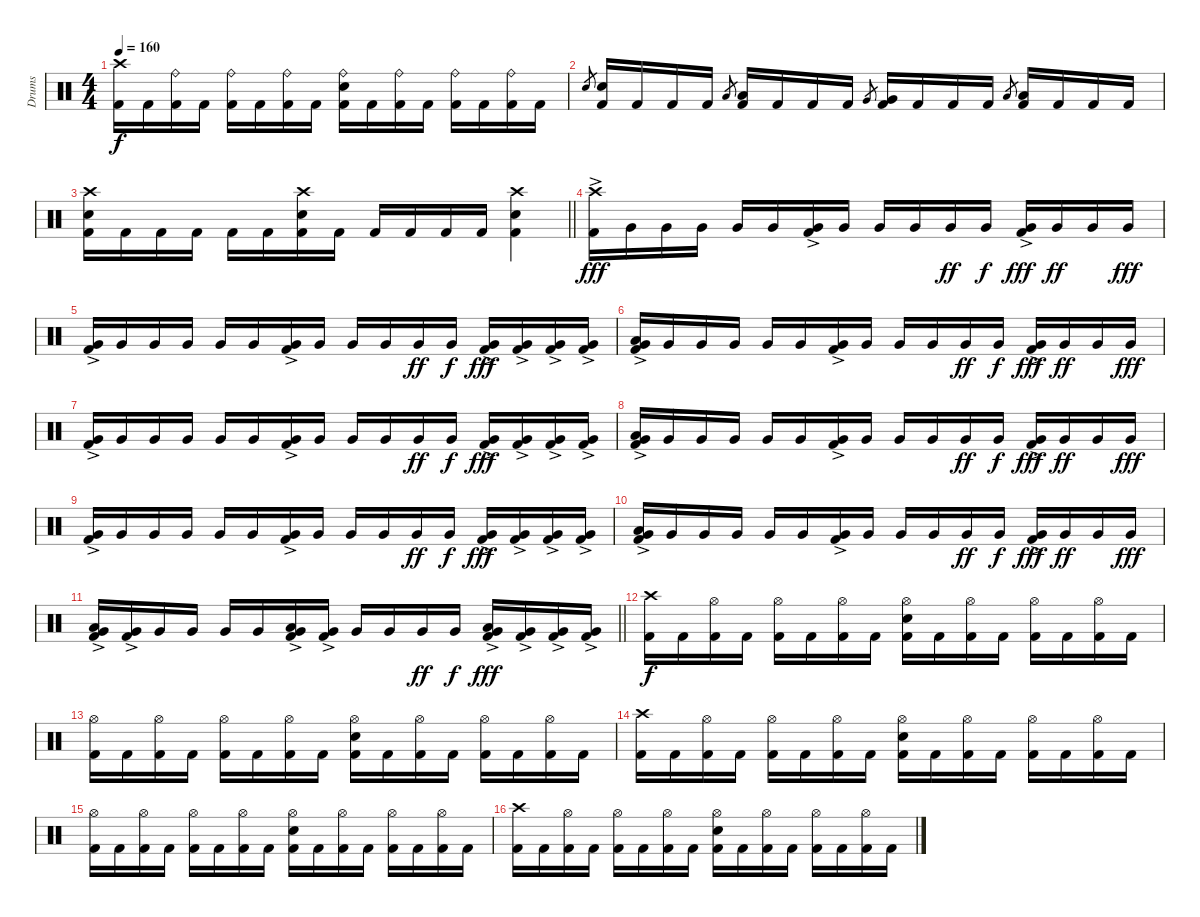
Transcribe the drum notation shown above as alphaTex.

\track ("Drums" "Drums") {instrument percussion}
\staff {score}
\articulation defaults
\ts (4 4)
\tempo 160
\clef neutral
\ks c
("Crash high (hit)" "Kick (hit) 2").16{dy f} "Kick (hit) 2".16 ("Ride (bell)" "Kick (hit) 2").16 "Kick (hit) 2".16 ("Ride (bell)" "Kick (hit) 2").16 "Kick (hit) 2".16 ("Ride (bell)" "Kick (hit) 2").16 "Kick (hit) 2".16 ("Ride (bell)" "Snare (hit) 2" "Kick (hit) 2").16 "Kick (hit) 2".16 ("Ride (bell)" "Kick (hit) 2").16 "Kick (hit) 2".16 ("Ride (bell)" "Kick (hit) 2").16 "Kick (hit) 2".16 ("Ride (bell)" "Kick (hit) 2").16 "Kick (hit) 2".16 |
"Snare (hit) 2".8{gr} ("Snare (hit) 2" "Kick (hit) 2").16 "Kick (hit) 2".16 "Kick (hit) 2".16 "Kick (hit) 2".16 "Low Tom (hit)".8{gr} ("Low Tom (hit)" "Kick (hit) 2").16 "Kick (hit) 2".16 "Kick (hit) 2".16 "Kick (hit) 2".16 "Very Low Tom (hit)".8{gr} ("Very Low Tom (hit)" "Kick (hit) 2").16 "Kick (hit) 2".16 "Kick (hit) 2".16 "Kick (hit) 2".16 "Low Floor Tom (hit)".8{gr} ("Low Floor Tom (hit)" "Kick (hit) 2").16 "Kick (hit) 2".16 "Kick (hit) 2".16 "Kick (hit) 2".16 |
\barLineRight lightlight
("Crash high (hit)" "Snare (hit) 2" "Kick (hit) 2").16 "Kick (hit) 2".16 "Kick (hit) 2".16 "Kick (hit) 2".16 "Kick (hit) 2".16 "Kick (hit) 2".16 ("Crash high (hit)" "Snare (hit) 2" "Kick (hit) 2").16 "Kick (hit) 2".16 "Kick (hit) 2".16 "Kick (hit) 2".16 "Kick (hit) 2".16 "Kick (hit) 2".16 ("Crash high (hit)" "Snare (hit) 2" "Kick (hit) 2").4 |
("Crash high (hit)" "Kick (hit) 2"{ac}).16{dy fff} "Very Low Tom (hit)".16 "Very Low Tom (hit)".16 "Very Low Tom (hit)".16 "Very Low Tom (hit)".16 "Very Low Tom (hit)".16 ("Very Low Tom (hit)"{ac} "Kick (hit) 2"{ac}).16 "Very Low Tom (hit)".16 "Very Low Tom (hit)".16 "Very Low Tom (hit)".16 "Very Low Tom (hit)".16{dy ff} "Very Low Tom (hit)".16{dy f} ("Very Low Tom (hit)"{ac} "Kick (hit) 2"{ac}).16{dy fff} "Very Low Tom (hit)".16{dy ff} "Very Low Tom (hit)".16 "Very Low Tom (hit)".16{dy fff} |
("Very Low Tom (hit)"{ac} "Kick (hit) 2"{ac}).16 "Very Low Tom (hit)".16 "Very Low Tom (hit)".16 "Very Low Tom (hit)".16 "Very Low Tom (hit)".16 "Very Low Tom (hit)".16 ("Very Low Tom (hit)"{ac} "Kick (hit) 2"{ac}).16 "Very Low Tom (hit)".16 "Very Low Tom (hit)".16 "Very Low Tom (hit)".16 "Very Low Tom (hit)".16{dy ff} "Very Low Tom (hit)".16{dy f} ("Very Low Tom (hit)"{ac} "Kick (hit) 2"{ac}).16{dy fff} ("Very Low Tom (hit)" "Kick (hit) 2"{ac}).16 ("Very Low Tom (hit)" "Kick (hit) 2"{ac}).16 ("Very Low Tom (hit)" "Kick (hit) 2"{ac}).16 |
("Very Low Tom (hit)"{ac} "Low Floor Tom (hit)"{ac} "Kick (hit) 2"{ac}).16 "Very Low Tom (hit)".16 "Very Low Tom (hit)".16 "Very Low Tom (hit)".16 "Very Low Tom (hit)".16 "Very Low Tom (hit)".16 ("Very Low Tom (hit)"{ac} "Kick (hit) 2"{ac}).16 "Very Low Tom (hit)".16 "Very Low Tom (hit)".16 "Very Low Tom (hit)".16 "Very Low Tom (hit)".16{dy ff} "Very Low Tom (hit)".16{dy f} ("Very Low Tom (hit)"{ac} "Kick (hit) 2"{ac}).16{dy fff} "Very Low Tom (hit)".16{dy ff} "Very Low Tom (hit)".16 "Very Low Tom (hit)".16{dy fff} |
("Very Low Tom (hit)"{ac} "Kick (hit) 2"{ac}).16 "Very Low Tom (hit)".16 "Very Low Tom (hit)".16 "Very Low Tom (hit)".16 "Very Low Tom (hit)".16 "Very Low Tom (hit)".16 ("Very Low Tom (hit)"{ac} "Kick (hit) 2"{ac}).16 "Very Low Tom (hit)".16 "Very Low Tom (hit)".16 "Very Low Tom (hit)".16 "Very Low Tom (hit)".16{dy ff} "Very Low Tom (hit)".16{dy f} ("Very Low Tom (hit)"{ac} "Kick (hit) 2"{ac}).16{dy fff} ("Very Low Tom (hit)" "Kick (hit) 2"{ac}).16 ("Very Low Tom (hit)" "Kick (hit) 2"{ac}).16 ("Very Low Tom (hit)" "Kick (hit) 2"{ac}).16 |
("Very Low Tom (hit)"{ac} "Low Floor Tom (hit)"{ac} "Kick (hit) 2"{ac}).16 "Very Low Tom (hit)".16 "Very Low Tom (hit)".16 "Very Low Tom (hit)".16 "Very Low Tom (hit)".16 "Very Low Tom (hit)".16 ("Very Low Tom (hit)"{ac} "Kick (hit) 2"{ac}).16 "Very Low Tom (hit)".16 "Very Low Tom (hit)".16 "Very Low Tom (hit)".16 "Very Low Tom (hit)".16{dy ff} "Very Low Tom (hit)".16{dy f} ("Very Low Tom (hit)"{ac} "Kick (hit) 2"{ac}).16{dy fff} "Very Low Tom (hit)".16{dy ff} "Very Low Tom (hit)".16 "Very Low Tom (hit)".16{dy fff} |
("Very Low Tom (hit)"{ac} "Kick (hit) 2"{ac}).16 "Very Low Tom (hit)".16 "Very Low Tom (hit)".16 "Very Low Tom (hit)".16 "Very Low Tom (hit)".16 "Very Low Tom (hit)".16 ("Very Low Tom (hit)"{ac} "Kick (hit) 2"{ac}).16 "Very Low Tom (hit)".16 "Very Low Tom (hit)".16 "Very Low Tom (hit)".16 "Very Low Tom (hit)".16{dy ff} "Very Low Tom (hit)".16{dy f} ("Very Low Tom (hit)"{ac} "Kick (hit) 2"{ac}).16{dy fff} ("Very Low Tom (hit)" "Kick (hit) 2"{ac}).16 ("Very Low Tom (hit)" "Kick (hit) 2"{ac}).16 ("Very Low Tom (hit)" "Kick (hit) 2"{ac}).16 |
("Very Low Tom (hit)"{ac} "Low Floor Tom (hit)"{ac} "Kick (hit) 2"{ac}).16 "Very Low Tom (hit)".16 "Very Low Tom (hit)".16 "Very Low Tom (hit)".16 "Very Low Tom (hit)".16 "Very Low Tom (hit)".16 ("Very Low Tom (hit)"{ac} "Kick (hit) 2"{ac}).16 "Very Low Tom (hit)".16 "Very Low Tom (hit)".16 "Very Low Tom (hit)".16 "Very Low Tom (hit)".16{dy ff} "Very Low Tom (hit)".16{dy f} ("Very Low Tom (hit)"{ac} "Kick (hit) 2"{ac}).16{dy fff} "Very Low Tom (hit)".16{dy ff} "Very Low Tom (hit)".16 "Very Low Tom (hit)".16{dy fff} |
\barLineRight lightlight
("Very Low Tom (hit)"{ac} "Low Floor Tom (hit)" "Kick (hit) 2"{ac}).16 ("Very Low Tom (hit)" "Kick (hit) 2"{ac}).16 "Very Low Tom (hit)".16 "Very Low Tom (hit)".16 "Very Low Tom (hit)".16 "Very Low Tom (hit)".16 ("Very Low Tom (hit)"{ac} "Low Floor Tom (hit)" "Kick (hit) 2"{ac}).16 ("Very Low Tom (hit)" "Kick (hit) 2"{ac}).16 "Very Low Tom (hit)".16 "Very Low Tom (hit)".16 "Very Low Tom (hit)".16{dy ff} "Very Low Tom (hit)".16{dy f} ("Very Low Tom (hit)"{ac} "Low Floor Tom (hit)" "Kick (hit) 2"{ac}).16{dy fff} ("Very Low Tom (hit)" "Kick (hit) 2"{ac}).16 ("Very Low Tom (hit)" "Kick (hit) 2"{ac}).16 ("Very Low Tom (hit)" "Kick (hit) 2"{ac}).16 |
("Crash high (hit)" "Kick (hit) 2").16{dy f} "Kick (hit) 2".16 ("Hi-Hat (open)" "Kick (hit) 2").16 "Kick (hit) 2".16 ("Hi-Hat (open)" "Kick (hit) 2").16 "Kick (hit) 2".16 ("Hi-Hat (open)" "Kick (hit) 2").16 "Kick (hit) 2".16 ("Hi-Hat (open)" "Snare (hit) 2" "Kick (hit) 2").16 "Kick (hit) 2".16 ("Hi-Hat (open)" "Kick (hit) 2").16 "Kick (hit) 2".16 ("Hi-Hat (open)" "Kick (hit) 2").16 "Kick (hit) 2".16 ("Hi-Hat (open)" "Kick (hit) 2").16 "Kick (hit) 2".16 |
("Hi-Hat (open)" "Kick (hit) 2").16 "Kick (hit) 2".16 ("Hi-Hat (open)" "Kick (hit) 2").16 "Kick (hit) 2".16 ("Hi-Hat (open)" "Kick (hit) 2").16 "Kick (hit) 2".16 ("Hi-Hat (open)" "Kick (hit) 2").16 "Kick (hit) 2".16 ("Hi-Hat (open)" "Snare (hit) 2" "Kick (hit) 2").16 "Kick (hit) 2".16 ("Hi-Hat (open)" "Kick (hit) 2").16 "Kick (hit) 2".16 ("Hi-Hat (open)" "Kick (hit) 2").16 "Kick (hit) 2".16 ("Hi-Hat (open)" "Kick (hit) 2").16 "Kick (hit) 2".16 |
("Crash high (hit)" "Kick (hit) 2").16 "Kick (hit) 2".16 ("Hi-Hat (open)" "Kick (hit) 2").16 "Kick (hit) 2".16 ("Hi-Hat (open)" "Kick (hit) 2").16 "Kick (hit) 2".16 ("Hi-Hat (open)" "Kick (hit) 2").16 "Kick (hit) 2".16 ("Hi-Hat (open)" "Snare (hit) 2" "Kick (hit) 2").16 "Kick (hit) 2".16 ("Hi-Hat (open)" "Kick (hit) 2").16 "Kick (hit) 2".16 ("Hi-Hat (open)" "Kick (hit) 2").16 "Kick (hit) 2".16 ("Hi-Hat (open)" "Kick (hit) 2").16 "Kick (hit) 2".16 |
("Hi-Hat (open)" "Kick (hit) 2").16 "Kick (hit) 2".16 ("Hi-Hat (open)" "Kick (hit) 2").16 "Kick (hit) 2".16 ("Hi-Hat (open)" "Kick (hit) 2").16 "Kick (hit) 2".16 ("Hi-Hat (open)" "Kick (hit) 2").16 "Kick (hit) 2".16 ("Hi-Hat (open)" "Snare (hit) 2" "Kick (hit) 2").16 "Kick (hit) 2".16 ("Hi-Hat (open)" "Kick (hit) 2").16 "Kick (hit) 2".16 ("Hi-Hat (open)" "Kick (hit) 2").16 "Kick (hit) 2".16 ("Hi-Hat (open)" "Kick (hit) 2").16 "Kick (hit) 2".16 |
("Crash high (hit)" "Kick (hit) 2").16 "Kick (hit) 2".16 ("Hi-Hat (open)" "Kick (hit) 2").16 "Kick (hit) 2".16 ("Hi-Hat (open)" "Kick (hit) 2").16 "Kick (hit) 2".16 ("Hi-Hat (open)" "Kick (hit) 2").16 "Kick (hit) 2".16 ("Hi-Hat (open)" "Snare (hit) 2" "Kick (hit) 2").16 "Kick (hit) 2".16 ("Hi-Hat (open)" "Kick (hit) 2").16 "Kick (hit) 2".16 ("Hi-Hat (open)" "Kick (hit) 2").16 "Kick (hit) 2".16 ("Hi-Hat (open)" "Kick (hit) 2").16 "Kick (hit) 2".16
